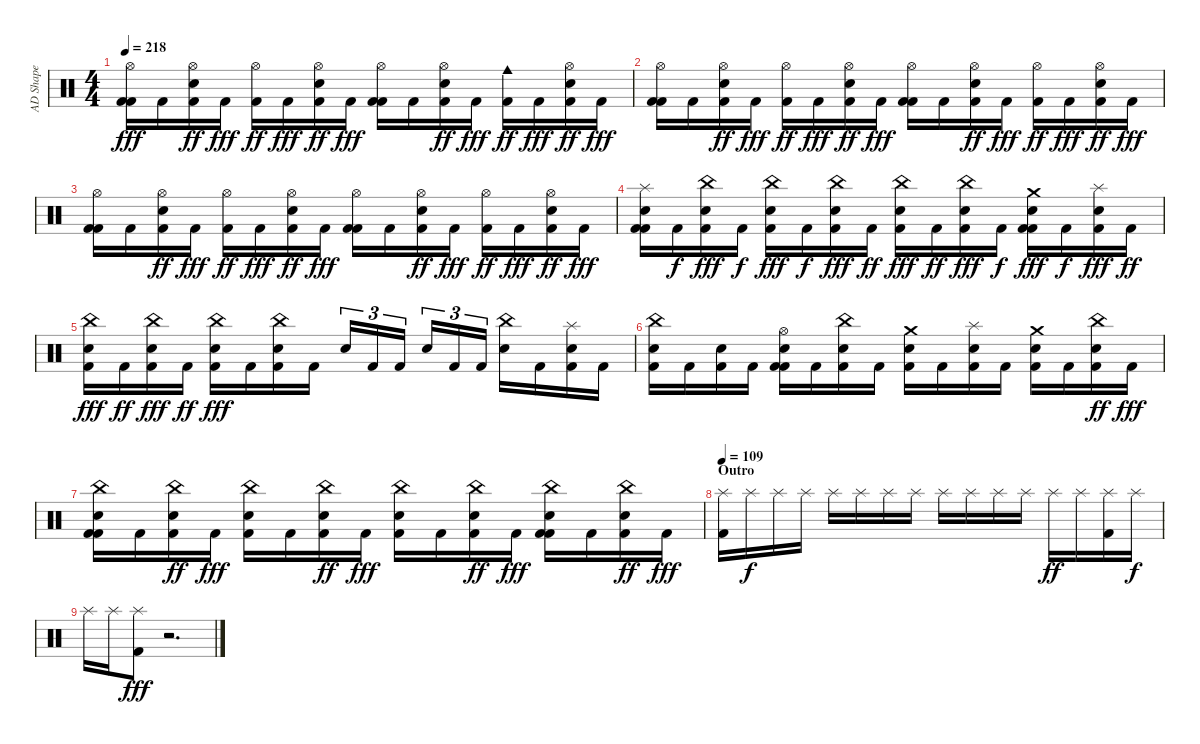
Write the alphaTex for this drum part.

\track ("AD Shape" "AD Shape") {instrument percussion}
\staff {score}
\articulation defaults
\ts (4 4)
\tempo 218
\clef neutral
\ks c
("Kick (hit) 2" "Kick (hit) 2" "Hi-Hat (open)").16{dy fff} "Kick (hit) 2".16 ("Kick (hit) 2" "Snare (hit) 2" "Hi-Hat (open)").16{dy ff} "Kick (hit) 2".16{dy fff} ("Kick (hit) 2" "Hi-Hat (open)").16{dy ff} "Kick (hit) 2".16{dy fff} ("Kick (hit) 2" "Snare (hit) 2" "Hi-Hat (open)").16{dy ff} "Kick (hit) 2".16{dy fff} ("Kick (hit) 2" "Kick (hit) 2" "Hi-Hat (open)").16 "Kick (hit) 2".16 ("Kick (hit) 2" "Snare (hit) 2" "Hi-Hat (open)").16{dy ff} "Kick (hit) 2".16{dy fff} ("Kick (hit) 2" "Cowbell medium (hit)").16{dy ff} "Kick (hit) 2".16{dy fff} ("Kick (hit) 2" "Snare (hit) 2" "Hi-Hat (open)").16{dy ff} "Kick (hit) 2".16{dy fff} |
("Kick (hit) 2" "Kick (hit) 2" "Hi-Hat (open)").16 "Kick (hit) 2".16 ("Kick (hit) 2" "Snare (hit) 2" "Hi-Hat (open)").16{dy ff} "Kick (hit) 2".16{dy fff} ("Kick (hit) 2" "Hi-Hat (open)").16{dy ff} "Kick (hit) 2".16{dy fff} ("Kick (hit) 2" "Snare (hit) 2" "Hi-Hat (open)").16{dy ff} "Kick (hit) 2".16{dy fff} ("Kick (hit) 2" "Kick (hit) 2" "Hi-Hat (open)").16 "Kick (hit) 2".16 ("Kick (hit) 2" "Snare (hit) 2" "Hi-Hat (open)").16{dy ff} "Kick (hit) 2".16{dy fff} ("Kick (hit) 2" "Hi-Hat (open)").16{dy ff} "Kick (hit) 2".16{dy fff} ("Kick (hit) 2" "Snare (hit) 2" "Hi-Hat (open)").16{dy ff} "Kick (hit) 2".16{dy fff} |
("Kick (hit) 2" "Kick (hit) 2" "Hi-Hat (open)").16 "Kick (hit) 2".16 ("Kick (hit) 2" "Snare (hit) 2" "Hi-Hat (open)").16{dy ff} "Kick (hit) 2".16{dy fff} ("Kick (hit) 2" "Hi-Hat (open)").16{dy ff} "Kick (hit) 2".16{dy fff} ("Kick (hit) 2" "Snare (hit) 2" "Hi-Hat (open)").16{dy ff} "Kick (hit) 2".16{dy fff} ("Kick (hit) 2" "Kick (hit) 2" "Hi-Hat (open)").16 "Kick (hit) 2".16 ("Kick (hit) 2" "Snare (hit) 2" "Hi-Hat (open)").16{dy ff} "Kick (hit) 2".16{dy fff} ("Kick (hit) 2" "Hi-Hat (open)").16{dy ff} "Kick (hit) 2".16{dy fff} ("Kick (hit) 2" "Snare (hit) 2" "Hi-Hat (open)").16{dy ff} "Kick (hit) 2".16{dy fff} |
("Kick (hit) 2" "Kick (hit) 2" "Snare (hit) 2" "Splash (hit)").16 "Kick (hit) 2".16{dy f} ("Kick (hit) 2" "Snare (hit) 2" "China (hit)").16{dy fff} "Kick (hit) 2".16{dy f} ("Kick (hit) 2" "Snare (hit) 2" "China (hit)").16{dy fff} "Kick (hit) 2".16{dy f} ("Kick (hit) 2" "Snare (hit) 2" "China (hit)").16{dy fff} "Kick (hit) 2".16{dy ff} ("Kick (hit) 2" "Snare (hit) 2" "China (hit)").16{dy fff} "Kick (hit) 2".16{dy ff} ("Kick (hit) 2" "Snare (hit) 2" "China (hit)").16{dy fff} "Kick (hit) 2".16{dy f} ("Kick (hit) 2" "Kick (hit) 2" "Snare (hit) 2" "Crash medium (hit)").16{dy fff} "Kick (hit) 2".16{dy f} ("Kick (hit) 2" "Snare (hit) 2" "Splash (hit)").16{dy fff} "Kick (hit) 2".16{dy ff} |
("Kick (hit) 2" "Snare (hit) 2" "China (hit)").16{dy fff} "Kick (hit) 2".16{dy ff} ("Kick (hit) 2" "Snare (hit) 2" "China (hit)").16{dy fff} "Kick (hit) 2".16{dy ff} ("Kick (hit) 2" "Snare (hit) 2" "China (hit)").16{dy fff} "Kick (hit) 2".16 ("Kick (hit) 2" "Snare (hit) 2" "China (hit)").16 "Kick (hit) 2".16 "Snare (hit) 2".16{tu (3 2)} "Kick (hit) 2".16{tu (3 2)} "Kick (hit) 2".16{tu (3 2)} "Snare (hit) 2".16{tu (3 2)} "Kick (hit) 2".16{tu (3 2)} "Kick (hit) 2".16{tu (3 2)} ("Snare (hit) 2" "China (hit)").16 "Kick (hit) 2".16 ("Kick (hit) 2" "Snare (hit) 2" "Splash (hit)").16 "Kick (hit) 2".16 |
("Kick (hit) 2" "Snare (hit) 2" "China (hit)").16 "Kick (hit) 2".16 ("Kick (hit) 2" "Snare (hit) 2").16 "Kick (hit) 2".16 ("Kick (hit) 2" "Kick (hit) 2" "Snare (hit) 2" "Hi-Hat (open)").16 "Kick (hit) 2".16 ("Kick (hit) 2" "Snare (hit) 2" "China (hit)").16 "Kick (hit) 2".16 ("Kick (hit) 2" "Snare (hit) 2" "Crash medium (hit)").16 "Kick (hit) 2".16 ("Kick (hit) 2" "Snare (hit) 2" "Splash (hit)").16 "Kick (hit) 2".16 ("Kick (hit) 2" "Snare (hit) 2" "Crash medium (hit)").16 "Kick (hit) 2".16 ("Kick (hit) 2" "Snare (hit) 2" "China (hit)").16{dy ff} "Kick (hit) 2".16{dy fff} |
("Kick (hit) 2" "Kick (hit) 2" "Snare (hit) 2" "China (hit)").16 "Kick (hit) 2".16 ("Kick (hit) 2" "Snare (hit) 2" "China (hit)").16{dy ff} "Kick (hit) 2".16{dy fff} ("Kick (hit) 2" "Snare (hit) 2" "China (hit)").16 "Kick (hit) 2".16 ("Kick (hit) 2" "Snare (hit) 2" "China (hit)").16{dy ff} "Kick (hit) 2".16{dy fff} ("Kick (hit) 2" "Snare (hit) 2" "China (hit)").16 "Kick (hit) 2".16 ("Kick (hit) 2" "Snare (hit) 2" "China (hit)").16{dy ff} "Kick (hit) 2".16{dy fff} ("Kick (hit) 2" "Kick (hit) 2" "Snare (hit) 2" "China (hit)").16 "Kick (hit) 2".16 ("Kick (hit) 2" "Snare (hit) 2" "China (hit)").16{dy ff} "Kick (hit) 2".16{dy fff} |
\section ("" "Outro")
\tempo 109
("Kick (hit) 2" "Splash (hit)").16 "Splash (hit)".16{dy f} "Splash (hit)".16 "Splash (hit)".16 "Splash (hit)".16 "Splash (hit)".16 "Splash (hit)".16 "Splash (hit)".16 "Splash (hit)".16 "Splash (hit)".16 "Splash (hit)".16 "Splash (hit)".16 "Splash (hit)".16{dy ff} "Splash (hit)".16 ("Kick (hit) 2" "Splash (hit)").16 "Splash (hit)".16{dy f} |
"Splash (hit)".16 "Splash (hit)".16 ("Kick (hit) 2" "Splash (hit)").8{dy fff} r.2{d}
